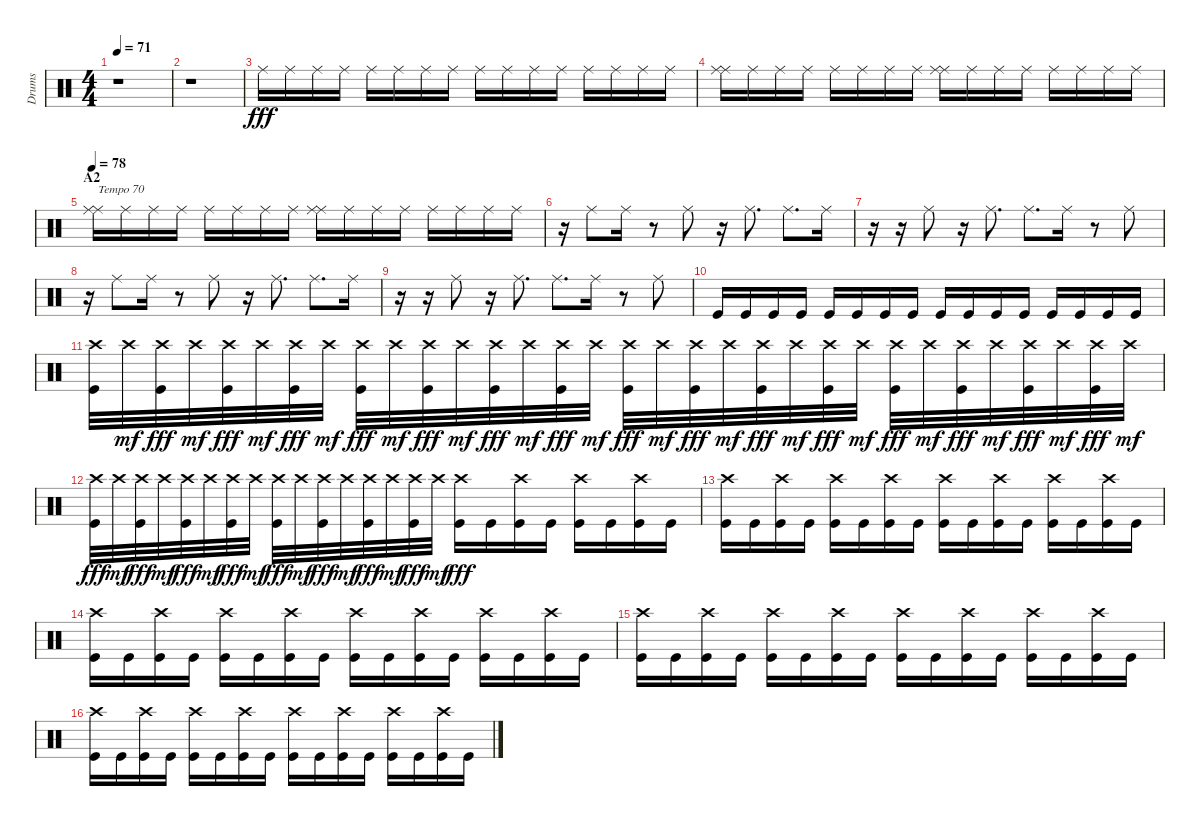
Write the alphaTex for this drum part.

\track ("Drums" "Drums") {instrument percussion}
\staff {score}
\articulation defaults
\ts (4 4)
\tempo 71
\clef neutral
\ks c
r.1{dy fff} |
r.1 |
"Ride (middle)".16 "Ride (middle)".16 "Ride (middle)".16 "Ride (middle)".16 "Ride (middle)".16 "Ride (middle)".16 "Ride (middle)".16 "Ride (middle)".16 "Ride (middle)".16 "Ride (middle)".16 "Ride (middle)".16 "Ride (middle)".16 "Ride (middle)".16 "Ride (middle)".16 "Ride (middle)".16 "Ride (middle)".16 |
("Ride (middle)" "Ride (middle)").16 "Ride (middle)".16 "Ride (middle)".16 "Ride (middle)".16 "Ride (middle)".16 "Ride (middle)".16 "Ride (middle)".16 "Ride (middle)".16 ("Ride (middle)" "Ride (middle)").16 "Ride (middle)".16 "Ride (middle)".16 "Ride (middle)".16 "Ride (middle)".16 "Ride (middle)".16 "Ride (middle)".16 "Ride (middle)".16 |
\section ("" "A2")
\tempo 78
("Ride (middle)" "Ride (middle)").16{txt "Tempo 70"} "Ride (middle)".16 "Ride (middle)".16 "Ride (middle)".16 "Ride (middle)".16 "Ride (middle)".16 "Ride (middle)".16 "Ride (middle)".16 ("Ride (middle)" "Ride (middle)").16 "Ride (middle)".16 "Ride (middle)".16 "Ride (middle)".16 "Ride (middle)".16 "Ride (middle)".16 "Ride (middle)".16 "Ride (middle)".16 |
r.16 "Ride (middle)".8 "Ride (middle)".16 r.8 "Ride (middle)".8 r.16 "Ride (middle)".8{d} "Ride (middle)".8{d} "Ride (middle)".16 |
r.16 r.16 "Ride (middle)".8 r.16 "Ride (middle)".8{d} "Ride (middle)".8{d} "Ride (middle)".16 r.8 "Ride (middle)".8 |
r.16 "Ride (middle)".8 "Ride (middle)".16 r.8 "Ride (middle)".8 r.16 "Ride (middle)".8{d} "Ride (middle)".8{d} "Ride (middle)".16 |
r.16 r.16 "Ride (middle)".8 r.16 "Ride (middle)".8{d} "Ride (middle)".8{d} "Ride (middle)".16 r.8 "Ride (middle)".8 |
"Kick (hit)".16 "Kick (hit)".16 "Kick (hit)".16 "Kick (hit)".16 "Kick (hit)".16 "Kick (hit)".16 "Kick (hit)".16 "Kick (hit)".16 "Kick (hit)".16 "Kick (hit)".16 "Kick (hit)".16 "Kick (hit)".16 "Kick (hit)".16 "Kick (hit)".16 "Kick (hit)".16 "Kick (hit)".16 |
("Crash high (hit)" "Kick (hit)").32 "Crash high (hit)".32{dy mf} ("Crash high (hit)" "Kick (hit)").32{dy fff} "Crash high (hit)".32{dy mf} ("Crash high (hit)" "Kick (hit)").32{dy fff} "Crash high (hit)".32{dy mf} ("Crash high (hit)" "Kick (hit)").32{dy fff} "Crash high (hit)".32{dy mf} ("Crash high (hit)" "Kick (hit)").32{dy fff} "Crash high (hit)".32{dy mf} ("Crash high (hit)" "Kick (hit)").32{dy fff} "Crash high (hit)".32{dy mf} ("Crash high (hit)" "Kick (hit)").32{dy fff} "Crash high (hit)".32{dy mf} ("Crash high (hit)" "Kick (hit)").32{dy fff} "Crash high (hit)".32{dy mf} ("Crash high (hit)" "Kick (hit)").32{dy fff} "Crash high (hit)".32{dy mf} ("Crash high (hit)" "Kick (hit)").32{dy fff} "Crash high (hit)".32{dy mf} ("Crash high (hit)" "Kick (hit)").32{dy fff} "Crash high (hit)".32{dy mf} ("Crash high (hit)" "Kick (hit)").32{dy fff} "Crash high (hit)".32{dy mf} ("Crash high (hit)" "Kick (hit)").32{dy fff} "Crash high (hit)".32{dy mf} ("Crash high (hit)" "Kick (hit)").32{dy fff} "Crash high (hit)".32{dy mf} ("Crash high (hit)" "Kick (hit)").32{dy fff} "Crash high (hit)".32{dy mf} ("Crash high (hit)" "Kick (hit)").32{dy fff} "Crash high (hit)".32{dy mf} |
("Crash high (hit)" "Kick (hit)").32{dy fff} "Crash high (hit)".32{dy mf} ("Crash high (hit)" "Kick (hit)").32{dy fff} "Crash high (hit)".32{dy mf} ("Crash high (hit)" "Kick (hit)").32{dy fff} "Crash high (hit)".32{dy mf} ("Crash high (hit)" "Kick (hit)").32{dy fff} "Crash high (hit)".32{dy mf} ("Crash high (hit)" "Kick (hit)").32{dy fff} "Crash high (hit)".32{dy mf} ("Crash high (hit)" "Kick (hit)").32{dy fff} "Crash high (hit)".32{dy mf} ("Crash high (hit)" "Kick (hit)").32{dy fff} "Crash high (hit)".32{dy mf} ("Crash high (hit)" "Kick (hit)").32{dy fff} "Crash high (hit)".32{dy mf} ("Crash high (hit)" "Kick (hit)").16{dy fff} "Kick (hit)".16 ("Crash high (hit)" "Kick (hit)").16 "Kick (hit)".16 ("Crash high (hit)" "Kick (hit)").16 "Kick (hit)".16 ("Crash high (hit)" "Kick (hit)").16 "Kick (hit)".16 |
("Crash high (hit)" "Kick (hit)").16 "Kick (hit)".16 ("Crash high (hit)" "Kick (hit)").16 "Kick (hit)".16 ("Crash high (hit)" "Kick (hit)").16 "Kick (hit)".16 ("Crash high (hit)" "Kick (hit)").16 "Kick (hit)".16 ("Crash high (hit)" "Kick (hit)").16 "Kick (hit)".16 ("Crash high (hit)" "Kick (hit)").16 "Kick (hit)".16 ("Crash high (hit)" "Kick (hit)").16 "Kick (hit)".16 ("Crash high (hit)" "Kick (hit)").16 "Kick (hit)".16 |
("Crash high (hit)" "Kick (hit)").16 "Kick (hit)".16 ("Crash high (hit)" "Kick (hit)").16 "Kick (hit)".16 ("Crash high (hit)" "Kick (hit)").16 "Kick (hit)".16 ("Crash high (hit)" "Kick (hit)").16 "Kick (hit)".16 ("Crash high (hit)" "Kick (hit)").16 "Kick (hit)".16 ("Crash high (hit)" "Kick (hit)").16 "Kick (hit)".16 ("Crash high (hit)" "Kick (hit)").16 "Kick (hit)".16 ("Crash high (hit)" "Kick (hit)").16 "Kick (hit)".16 |
("Crash high (hit)" "Kick (hit)").16 "Kick (hit)".16 ("Crash high (hit)" "Kick (hit)").16 "Kick (hit)".16 ("Crash high (hit)" "Kick (hit)").16 "Kick (hit)".16 ("Crash high (hit)" "Kick (hit)").16 "Kick (hit)".16 ("Crash high (hit)" "Kick (hit)").16 "Kick (hit)".16 ("Crash high (hit)" "Kick (hit)").16 "Kick (hit)".16 ("Crash high (hit)" "Kick (hit)").16 "Kick (hit)".16 ("Crash high (hit)" "Kick (hit)").16 "Kick (hit)".16 |
("Crash high (hit)" "Kick (hit)").16 "Kick (hit)".16 ("Crash high (hit)" "Kick (hit)").16 "Kick (hit)".16 ("Crash high (hit)" "Kick (hit)").16 "Kick (hit)".16 ("Crash high (hit)" "Kick (hit)").16 "Kick (hit)".16 ("Crash high (hit)" "Kick (hit)").16 "Kick (hit)".16 ("Crash high (hit)" "Kick (hit)").16 "Kick (hit)".16 ("Crash high (hit)" "Kick (hit)").16 "Kick (hit)".16 ("Crash high (hit)" "Kick (hit)").16 "Kick (hit)".16
